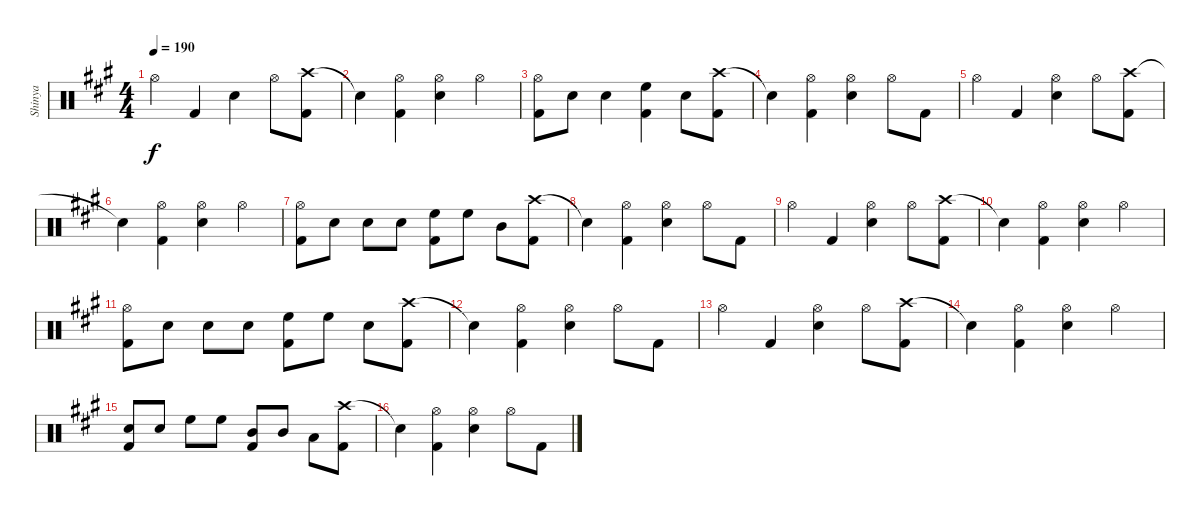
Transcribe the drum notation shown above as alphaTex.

\track ("Shinya" "Shinya") {instrument percussion}
\staff {score}
\articulation defaults
\ts (4 4)
\tempo 190
\clef neutral
\ks a "Hi-Hat (open)".4{dy f} "Kick (hit) 2".4 "Snare (hit) 2".4 "Hi-Hat (open)".8
("Crash high (hit)" "Kick (hit) 2").8 |
"Snare (hit)"{t}.4 ("Hi-Hat (open)" "Kick (hit) 2").4 ("Hi-Hat (open)" "Snare (hit) 2").4 "Hi-Hat (open)".4 |
("Hi-Hat (open)" "Kick (hit) 2").8 "Snare (hit) 2".8 "Snare (hit) 2".4 ("High Floor Tom (hit)" "Kick (hit) 2").4 "Snare (hit) 2".8 ("Crash high (hit)" "Kick (hit) 2").8 |
"Snare (hit)"{t}.4 ("Hi-Hat (open)" "Kick (hit) 2").4 ("Hi-Hat (open)" "Snare (hit) 2").4 "Hi-Hat (open)".8 "Kick (hit) 2".8 |
"Hi-Hat (open)".4 "Kick (hit) 2".4 ("Hi-Hat (open)" "Snare (hit) 2").4 "Hi-Hat (open)".8 ("Crash high (hit)" "Kick (hit) 2").8 |
"Snare (hit)"{t}.4 ("Hi-Hat (open)" "Kick (hit) 2").4 ("Hi-Hat (open)" "Snare (hit) 2").4 "Hi-Hat (open)".4 |
("Hi-Hat (open)" "Kick (hit) 2").8 "Snare (hit) 2".8 "Snare (hit) 2".8 "Snare (hit) 2".8 ("High Floor Tom (hit)" "Kick (hit) 2").8 "High Floor Tom (hit)".8 "Mid Tom (hit)".8 ("Crash high (hit)" "Kick (hit) 2").8 |
"Snare (hit)"{t}.4 ("Hi-Hat (open)" "Kick (hit) 2").4 ("Hi-Hat (open)" "Snare (hit) 2").4 "Hi-Hat (open)".8 "Kick (hit) 2".8 |
"Hi-Hat (open)".4 "Kick (hit) 2".4 ("Hi-Hat (open)" "Snare (hit) 2").4 "Hi-Hat (open)".8 ("Crash high (hit)" "Kick (hit) 2").8 |
"Snare (hit)"{t}.4 ("Hi-Hat (open)" "Kick (hit) 2").4 ("Hi-Hat (open)" "Snare (hit) 2").4 "Hi-Hat (open)".4 |
("Hi-Hat (open)" "Kick (hit) 2").8 "Snare (hit) 2".8 "Snare (hit) 2".8 "Snare (hit) 2".8 ("High Floor Tom (hit)" "Kick (hit) 2").8 "High Floor Tom (hit)".8 "Snare (hit) 2".8 ("Crash high (hit)" "Kick (hit) 2").8 |
"Snare (hit)"{t}.4 ("Hi-Hat (open)" "Kick (hit) 2").4 ("Hi-Hat (open)" "Snare (hit) 2").4 "Hi-Hat (open)".8 "Kick (hit) 2".8 |
"Hi-Hat (open)".4 "Kick (hit) 2".4 ("Hi-Hat (open)" "Snare (hit) 2").4 "Hi-Hat (open)".8 ("Crash high (hit)" "Kick (hit) 2").8 |
"Snare (hit)"{t}.4 ("Hi-Hat (open)" "Kick (hit) 2").4 ("Hi-Hat (open)" "Snare (hit) 2").4 "Hi-Hat (open)".4 |
("Snare (hit) 2" "Kick (hit) 2").8 "Snare (hit) 2".8 "High Floor Tom (hit)".8 "High Floor Tom (hit)".8 ("Mid Tom (hit)" "Kick (hit) 2").8 "Mid Tom (hit)".8 "Low Tom (hit)".8 ("Crash high (hit)" "Kick (hit) 2").8 |
"Snare (hit)"{t}.4 ("Hi-Hat (open)" "Kick (hit) 2").4 ("Hi-Hat (open)" "Snare (hit) 2").4 "Hi-Hat (open)".8 "Kick (hit) 2".8
